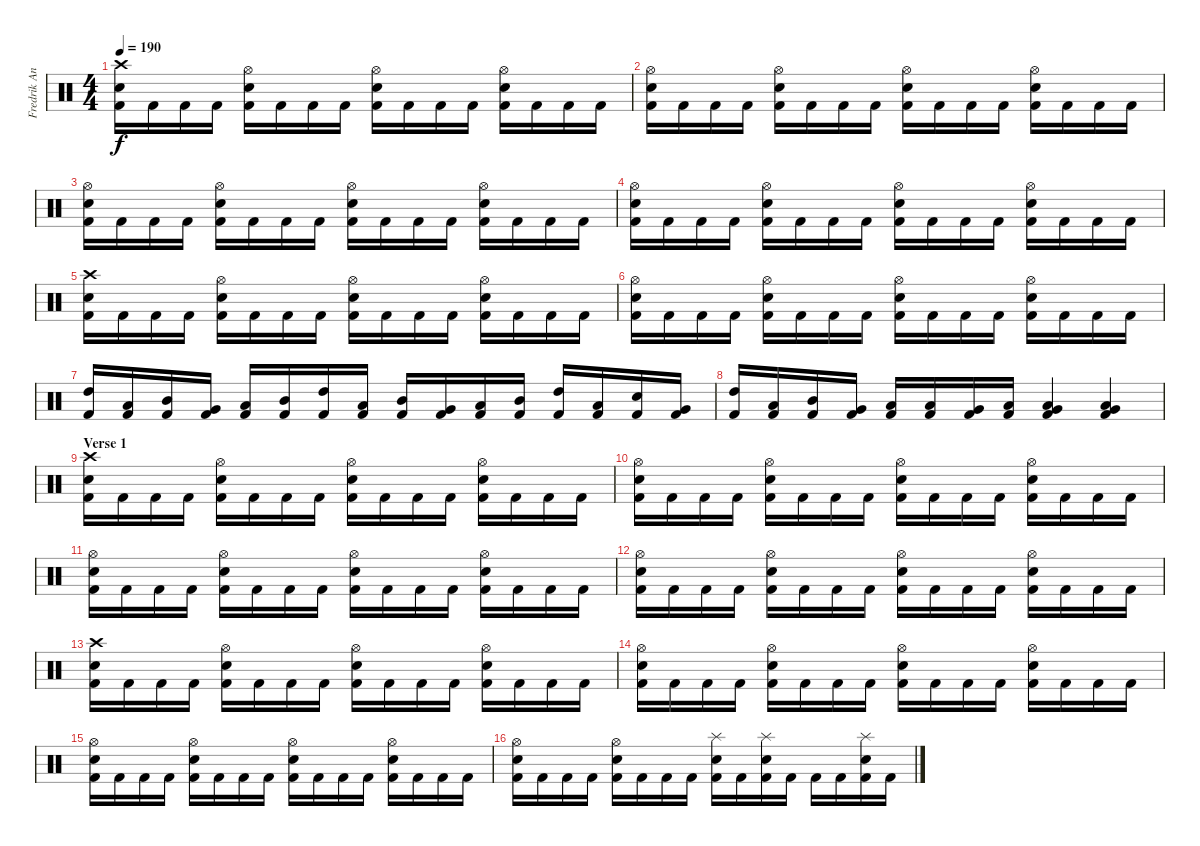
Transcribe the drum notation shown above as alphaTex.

\track ("Fredrik Andersson" "Fredrik An") {instrument percussion}
\staff {score}
\articulation defaults
\ts (4 4)
\section ("" "")
\tempo 190
\clef neutral
\ks c
("Crash high (hit)" "Electric Snare (hit)" "Kick (hit) 2").16{dy f} "Kick (hit) 2".16 "Kick (hit) 2".16 "Kick (hit) 2".16 ("Hi-Hat (open)" "Electric Snare (hit)" "Kick (hit) 2").16 "Kick (hit) 2".16 "Kick (hit) 2".16 "Kick (hit) 2".16 ("Hi-Hat (open)" "Electric Snare (hit)" "Kick (hit) 2").16 "Kick (hit) 2".16 "Kick (hit) 2".16 "Kick (hit) 2".16 ("Hi-Hat (open)" "Electric Snare (hit)" "Kick (hit) 2").16 "Kick (hit) 2".16 "Kick (hit) 2".16 "Kick (hit) 2".16 |
("Hi-Hat (open)" "Electric Snare (hit)" "Kick (hit) 2").16 "Kick (hit) 2".16 "Kick (hit) 2".16 "Kick (hit) 2".16 ("Hi-Hat (open)" "Electric Snare (hit)" "Kick (hit) 2").16 "Kick (hit) 2".16 "Kick (hit) 2".16 "Kick (hit) 2".16 ("Hi-Hat (open)" "Electric Snare (hit)" "Kick (hit) 2").16 "Kick (hit) 2".16 "Kick (hit) 2".16 "Kick (hit) 2".16 ("Hi-Hat (open)" "Electric Snare (hit)" "Kick (hit) 2").16 "Kick (hit) 2".16 "Kick (hit) 2".16 "Kick (hit) 2".16 |
("Hi-Hat (open)" "Electric Snare (hit)" "Kick (hit) 2").16 "Kick (hit) 2".16 "Kick (hit) 2".16 "Kick (hit) 2".16 ("Hi-Hat (open)" "Electric Snare (hit)" "Kick (hit) 2").16 "Kick (hit) 2".16 "Kick (hit) 2".16 "Kick (hit) 2".16 ("Hi-Hat (open)" "Electric Snare (hit)" "Kick (hit) 2").16 "Kick (hit) 2".16 "Kick (hit) 2".16 "Kick (hit) 2".16 ("Hi-Hat (open)" "Electric Snare (hit)" "Kick (hit) 2").16 "Kick (hit) 2".16 "Kick (hit) 2".16 "Kick (hit) 2".16 |
("Hi-Hat (open)" "Electric Snare (hit)" "Kick (hit) 2").16 "Kick (hit) 2".16 "Kick (hit) 2".16 "Kick (hit) 2".16 ("Hi-Hat (open)" "Electric Snare (hit)" "Kick (hit) 2").16 "Kick (hit) 2".16 "Kick (hit) 2".16 "Kick (hit) 2".16 ("Hi-Hat (open)" "Electric Snare (hit)" "Kick (hit) 2").16 "Kick (hit) 2".16 "Kick (hit) 2".16 "Kick (hit) 2".16 ("Hi-Hat (open)" "Electric Snare (hit)" "Kick (hit) 2").16 "Kick (hit) 2".16 "Kick (hit) 2".16 "Kick (hit) 2".16 |
("Crash high (hit)" "Electric Snare (hit)" "Kick (hit) 2").16 "Kick (hit) 2".16 "Kick (hit) 2".16 "Kick (hit) 2".16 ("Hi-Hat (open)" "Electric Snare (hit)" "Kick (hit) 2").16 "Kick (hit) 2".16 "Kick (hit) 2".16 "Kick (hit) 2".16 ("Hi-Hat (open)" "Electric Snare (hit)" "Kick (hit) 2").16 "Kick (hit) 2".16 "Kick (hit) 2".16 "Kick (hit) 2".16 ("Hi-Hat (open)" "Electric Snare (hit)" "Kick (hit) 2").16 "Kick (hit) 2".16 "Kick (hit) 2".16 "Kick (hit) 2".16 |
("Hi-Hat (open)" "Electric Snare (hit)" "Kick (hit) 2").16 "Kick (hit) 2".16 "Kick (hit) 2".16 "Kick (hit) 2".16 ("Hi-Hat (open)" "Electric Snare (hit)" "Kick (hit) 2").16 "Kick (hit) 2".16 "Kick (hit) 2".16 "Kick (hit) 2".16 ("Hi-Hat (open)" "Electric Snare (hit)" "Kick (hit) 2").16 "Kick (hit) 2".16 "Kick (hit) 2".16 "Kick (hit) 2".16 ("Hi-Hat (open)" "Electric Snare (hit)" "Kick (hit) 2").16 "Kick (hit) 2".16 "Kick (hit) 2".16 "Kick (hit) 2".16 |
("High Tom (hit)" "Kick (hit) 2").16 ("Low Tom (hit)" "Kick (hit) 2").16 ("Mid Tom (hit)" "Kick (hit) 2").16 ("Very Low Tom (hit)" "Kick (hit) 2").16 ("Low Tom (hit)" "Kick (hit) 2").16 ("Mid Tom (hit)" "Kick (hit) 2").16 ("High Tom (hit)" "Kick (hit) 2").16 ("Low Tom (hit)" "Kick (hit) 2").16 ("Mid Tom (hit)" "Kick (hit) 2").16 ("Very Low Tom (hit)" "Kick (hit) 2").16 ("Low Tom (hit)" "Kick (hit) 2").16 ("Mid Tom (hit)" "Kick (hit) 2").16 ("High Tom (hit)" "Kick (hit) 2").16 ("Low Tom (hit)" "Kick (hit) 2").16 ("Electric Snare (hit)" "Kick (hit) 2").16 ("Very Low Tom (hit)" "Kick (hit) 2").16 |
("High Tom (hit)" "Kick (hit) 2").16 ("Low Tom (hit)" "Kick (hit) 2").16 ("Mid Tom (hit)" "Kick (hit) 2").16 ("Very Low Tom (hit)" "Kick (hit) 2").16 ("Low Tom (hit)" "Kick (hit) 2").16 ("Low Tom (hit)" "Kick (hit) 2").16 ("Very Low Tom (hit)" "Kick (hit) 2").16 ("Low Floor Tom (hit)" "Kick (hit) 2").16 ("Very Low Tom (hit)" "Low Tom (hit)" "Kick (hit) 2").4 ("Very Low Tom (hit)" "Low Tom (hit)" "Kick (hit) 2").4 |
\section ("" "Verse 1")
("Crash high (hit)" "Electric Snare (hit)" "Kick (hit) 2").16 "Kick (hit) 2".16 "Kick (hit) 2".16 "Kick (hit) 2".16 ("Hi-Hat (open)" "Electric Snare (hit)" "Kick (hit) 2").16 "Kick (hit) 2".16 "Kick (hit) 2".16 "Kick (hit) 2".16 ("Hi-Hat (open)" "Electric Snare (hit)" "Kick (hit) 2").16 "Kick (hit) 2".16 "Kick (hit) 2".16 "Kick (hit) 2".16 ("Hi-Hat (open)" "Electric Snare (hit)" "Kick (hit) 2").16 "Kick (hit) 2".16 "Kick (hit) 2".16 "Kick (hit) 2".16 |
("Hi-Hat (open)" "Electric Snare (hit)" "Kick (hit) 2").16 "Kick (hit) 2".16 "Kick (hit) 2".16 "Kick (hit) 2".16 ("Hi-Hat (open)" "Electric Snare (hit)" "Kick (hit) 2").16 "Kick (hit) 2".16 "Kick (hit) 2".16 "Kick (hit) 2".16 ("Hi-Hat (open)" "Electric Snare (hit)" "Kick (hit) 2").16 "Kick (hit) 2".16 "Kick (hit) 2".16 "Kick (hit) 2".16 ("Hi-Hat (open)" "Electric Snare (hit)" "Kick (hit) 2").16 "Kick (hit) 2".16 "Kick (hit) 2".16 "Kick (hit) 2".16 |
("Hi-Hat (open)" "Electric Snare (hit)" "Kick (hit) 2").16 "Kick (hit) 2".16 "Kick (hit) 2".16 "Kick (hit) 2".16 ("Hi-Hat (open)" "Electric Snare (hit)" "Kick (hit) 2").16 "Kick (hit) 2".16 "Kick (hit) 2".16 "Kick (hit) 2".16 ("Hi-Hat (open)" "Electric Snare (hit)" "Kick (hit) 2").16 "Kick (hit) 2".16 "Kick (hit) 2".16 "Kick (hit) 2".16 ("Hi-Hat (open)" "Electric Snare (hit)" "Kick (hit) 2").16 "Kick (hit) 2".16 "Kick (hit) 2".16 "Kick (hit) 2".16 |
("Hi-Hat (open)" "Electric Snare (hit)" "Kick (hit) 2").16 "Kick (hit) 2".16 "Kick (hit) 2".16 "Kick (hit) 2".16 ("Hi-Hat (open)" "Electric Snare (hit)" "Kick (hit) 2").16 "Kick (hit) 2".16 "Kick (hit) 2".16 "Kick (hit) 2".16 ("Hi-Hat (open)" "Electric Snare (hit)" "Kick (hit) 2").16 "Kick (hit) 2".16 "Kick (hit) 2".16 "Kick (hit) 2".16 ("Hi-Hat (open)" "Electric Snare (hit)" "Kick (hit) 2").16 "Kick (hit) 2".16 "Kick (hit) 2".16 "Kick (hit) 2".16 |
("Crash high (hit)" "Electric Snare (hit)" "Kick (hit) 2").16 "Kick (hit) 2".16 "Kick (hit) 2".16 "Kick (hit) 2".16 ("Hi-Hat (open)" "Electric Snare (hit)" "Kick (hit) 2").16 "Kick (hit) 2".16 "Kick (hit) 2".16 "Kick (hit) 2".16 ("Hi-Hat (open)" "Electric Snare (hit)" "Kick (hit) 2").16 "Kick (hit) 2".16 "Kick (hit) 2".16 "Kick (hit) 2".16 ("Hi-Hat (open)" "Electric Snare (hit)" "Kick (hit) 2").16 "Kick (hit) 2".16 "Kick (hit) 2".16 "Kick (hit) 2".16 |
("Hi-Hat (open)" "Electric Snare (hit)" "Kick (hit) 2").16 "Kick (hit) 2".16 "Kick (hit) 2".16 "Kick (hit) 2".16 ("Hi-Hat (open)" "Electric Snare (hit)" "Kick (hit) 2").16 "Kick (hit) 2".16 "Kick (hit) 2".16 "Kick (hit) 2".16 ("Hi-Hat (open)" "Electric Snare (hit)" "Kick (hit) 2").16 "Kick (hit) 2".16 "Kick (hit) 2".16 "Kick (hit) 2".16 ("Hi-Hat (open)" "Electric Snare (hit)" "Kick (hit) 2").16 "Kick (hit) 2".16 "Kick (hit) 2".16 "Kick (hit) 2".16 |
("Hi-Hat (open)" "Electric Snare (hit)" "Kick (hit) 2").16 "Kick (hit) 2".16 "Kick (hit) 2".16 "Kick (hit) 2".16 ("Hi-Hat (open)" "Electric Snare (hit)" "Kick (hit) 2").16 "Kick (hit) 2".16 "Kick (hit) 2".16 "Kick (hit) 2".16 ("Hi-Hat (open)" "Electric Snare (hit)" "Kick (hit) 2").16 "Kick (hit) 2".16 "Kick (hit) 2".16 "Kick (hit) 2".16 ("Hi-Hat (open)" "Electric Snare (hit)" "Kick (hit) 2").16 "Kick (hit) 2".16 "Kick (hit) 2".16 "Kick (hit) 2".16 |
("Hi-Hat (open)" "Electric Snare (hit)" "Kick (hit) 2").16 "Kick (hit) 2".16 "Kick (hit) 2".16 "Kick (hit) 2".16 ("Hi-Hat (open)" "Electric Snare (hit)" "Kick (hit) 2").16 "Kick (hit) 2".16 "Kick (hit) 2".16 "Kick (hit) 2".16 ("Splash (hit)" "Electric Snare (hit)" "Kick (hit) 2").16 "Kick (hit) 2".16 ("Splash (hit)" "Electric Snare (hit)" "Kick (hit) 2").16 "Kick (hit) 2".16 "Kick (hit) 2".16 "Kick (hit) 2".16 ("Splash (hit)" "Electric Snare (hit)" "Kick (hit) 2").16 "Kick (hit) 2".16
